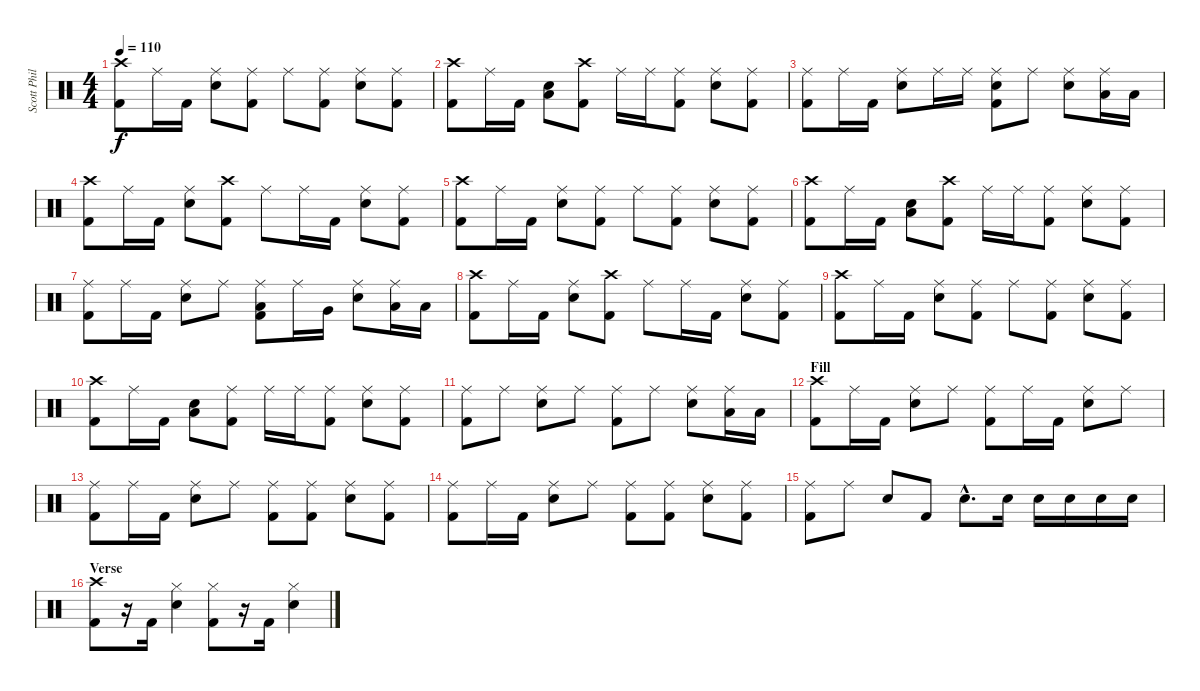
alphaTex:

\track ("Scott Phillips" "Scott Phil") {instrument percussion}
\staff {score}
\articulation defaults
\ts (4 4)
\tempo 110
\clef neutral
\ks c
("Crash high (hit)" "Kick (hit) 2").8{dy f} "Ride (middle)".16 "Kick (hit) 2".16 ("Ride (middle)" "Electric Snare (hit)").8 ("Ride (middle)" "Kick (hit) 2").8 "Ride (middle)".8 ("Ride (middle)" "Kick (hit) 2").8 ("Ride (middle)" "Electric Snare (hit)").8 ("Ride (middle)" "Kick (hit) 2").8 |
("Crash high (hit)" "Kick (hit) 2").8 "Ride (middle)".16 "Kick (hit) 2".16 ("Low Tom (hit)" "Electric Snare (hit)").8 ("Crash high (hit)" "Kick (hit) 2").8 "Ride (middle)".16 "Ride (middle)".16 ("Ride (middle)" "Kick (hit) 2").8 ("Ride (middle)" "Electric Snare (hit)").8 ("Ride (middle)" "Kick (hit) 2").8 |
("Ride (middle)" "Kick (hit) 2").8 "Ride (middle)".16 "Kick (hit) 2".16 ("Ride (middle)" "Electric Snare (hit)").8 "Ride (middle)".16 "Ride (middle)".16 ("Ride (middle)" "Electric Snare (hit)" "Kick (hit) 2").8 "Ride (middle)".8 ("Ride (middle)" "Electric Snare (hit)").8 ("Ride (middle)" "Low Tom (hit)").16 "Low Tom (hit)".16 |
("Crash high (hit)" "Kick (hit) 2").8 "Ride (middle)".16 "Kick (hit) 2".16 ("Ride (middle)" "Electric Snare (hit)").8 ("Crash high (hit)" "Kick (hit) 2").8 "Ride (middle)".8 "Ride (middle)".16 "Kick (hit) 2".16 ("Ride (middle)" "Electric Snare (hit)").8 ("Ride (middle)" "Kick (hit) 2").8 |
("Crash high (hit)" "Kick (hit) 2").8 "Ride (middle)".16 "Kick (hit) 2".16 ("Ride (middle)" "Electric Snare (hit)").8 ("Ride (middle)" "Kick (hit) 2").8 "Ride (middle)".8 ("Ride (middle)" "Kick (hit) 2").8 ("Ride (middle)" "Electric Snare (hit)").8 ("Ride (middle)" "Kick (hit) 2").8 |
("Crash high (hit)" "Kick (hit) 2").8 "Ride (middle)".16 "Kick (hit) 2".16 ("Low Tom (hit)" "Electric Snare (hit)").8 ("Crash high (hit)" "Kick (hit) 2").8 "Ride (middle)".16 "Ride (middle)".16 ("Ride (middle)" "Kick (hit) 2").8 ("Ride (middle)" "Electric Snare (hit)").8 ("Ride (middle)" "Kick (hit) 2").8 |
("Ride (middle)" "Kick (hit) 2").8 "Ride (middle)".16 "Kick (hit) 2".16 ("Ride (middle)" "Electric Snare (hit)").8 "Ride (middle)".8 ("Ride (middle)" "Low Tom (hit)" "Kick (hit) 2").8 "Ride (middle)".16 "Very Low Tom (hit)".16 ("Ride (middle)" "Electric Snare (hit)").8 ("Ride (middle)" "Low Tom (hit)").16 "Low Tom (hit)".16 |
("Crash high (hit)" "Kick (hit) 2").8 "Ride (middle)".16 "Kick (hit) 2".16 ("Ride (middle)" "Electric Snare (hit)").8 ("Crash high (hit)" "Kick (hit) 2").8 "Ride (middle)".8 "Ride (middle)".16 "Kick (hit) 2".16 ("Ride (middle)" "Electric Snare (hit)").8 ("Ride (middle)" "Kick (hit) 2").8 |
("Crash high (hit)" "Kick (hit) 2").8 "Ride (middle)".16 "Kick (hit) 2".16 ("Ride (middle)" "Electric Snare (hit)").8 ("Ride (middle)" "Kick (hit) 2").8 "Ride (middle)".8 ("Ride (middle)" "Kick (hit) 2").8 ("Ride (middle)" "Electric Snare (hit)").8 ("Ride (middle)" "Kick (hit) 2").8 |
("Crash high (hit)" "Kick (hit) 2").8 "Ride (middle)".16 "Kick (hit) 2".16 ("Low Tom (hit)" "Electric Snare (hit)").8 ("Ride (middle)" "Kick (hit) 2").8 "Ride (middle)".16 "Ride (middle)".16 ("Ride (middle)" "Kick (hit) 2").8 ("Ride (middle)" "Electric Snare (hit)").8 ("Ride (middle)" "Kick (hit) 2").8 |
("Ride (middle)" "Kick (hit) 2").8 "Ride (middle)".8 ("Ride (middle)" "Electric Snare (hit)").8 "Ride (middle)".8 ("Ride (middle)" "Kick (hit) 2").8 "Ride (middle)".8 ("Ride (middle)" "Electric Snare (hit)").8 ("Ride (middle)" "Low Tom (hit)").16 "Low Tom (hit)".16 |
\section ("" "Fill")
("Crash high (hit)" "Kick (hit) 2").8 "Ride (middle)".16 "Kick (hit) 2".16 ("Ride (middle)" "Electric Snare (hit)").8 "Ride (middle)".8 ("Ride (middle)" "Kick (hit) 2").8 "Ride (middle)".16 "Kick (hit) 2".16 ("Ride (middle)" "Electric Snare (hit)").8 "Ride (middle)".8 |
("Ride (middle)" "Kick (hit) 2").8 "Ride (middle)".16 "Kick (hit) 2".16 ("Ride (middle)" "Electric Snare (hit)").8 "Ride (middle)".8 ("Ride (middle)" "Kick (hit) 2").8 ("Ride (middle)" "Kick (hit) 2").8 ("Ride (middle)" "Electric Snare (hit)").8 ("Ride (middle)" "Kick (hit) 2").8 |
("Ride (middle)" "Kick (hit) 2").8 "Ride (middle)".16 "Kick (hit) 2".16 ("Ride (middle)" "Electric Snare (hit)").8 "Ride (middle)".8 ("Ride (middle)" "Kick (hit) 2").8 ("Ride (middle)" "Kick (hit) 2").8 ("Ride (middle)" "Electric Snare (hit)").8 ("Ride (middle)" "Kick (hit) 2").8 |
("Ride (middle)" "Kick (hit) 2").8 "Ride (middle)".8 "Electric Snare (hit)".8 "Kick (hit) 2".8 "Electric Snare (hit)"{hac}.8{d} "Electric Snare (hit)".16 "Electric Snare (hit)".16 "Electric Snare (hit)".16 "Electric Snare (hit)".16 "Electric Snare (hit)".16 |
\section ("" "Verse")
("Crash high (hit)" "Kick (hit) 2").8 r.16 "Kick (hit) 2".16 ("Hi-Hat (closed)" "Electric Snare (hit)").4 ("Hi-Hat (closed)" "Kick (hit) 2").8 r.16 "Kick (hit) 2".16 ("Hi-Hat (closed)" "Electric Snare (hit)").4
